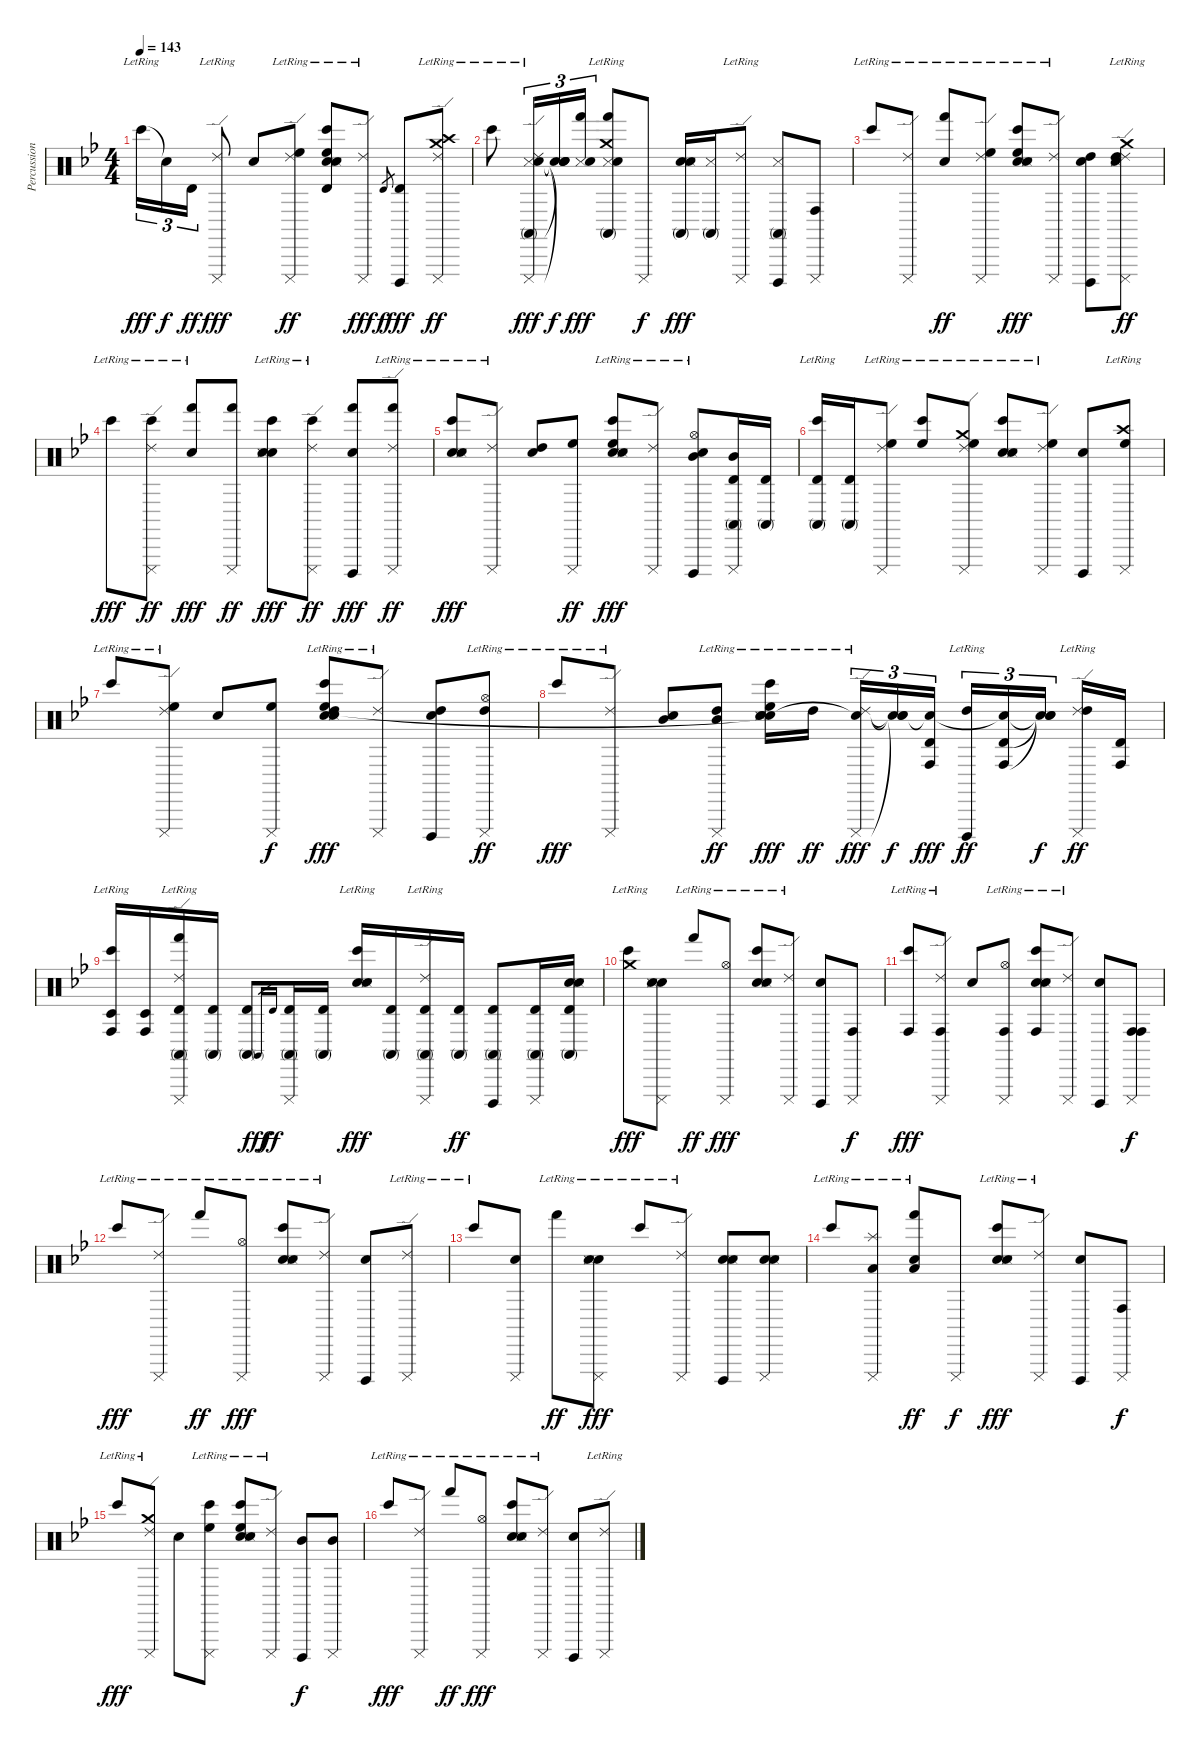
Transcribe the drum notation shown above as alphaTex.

\track ("Percussion" "Percussion") {instrument percussion}
\staff {score}
\articulation defaults
\ts (4 4)
\tempo 143
\clef neutral
\ks gminor "Bongo High (hit)"{lr}.16{tu (3 2) dy fff} "Snare (hit)"{t}.16{tu (3 2) dy f} "Timbale high (hit)".16{tu (3 2) dy ff}
("Cuica (mute)" "Ride (edge) 2"{lr}).8{dy fff} "Snare (hit) 2".8 ("Cuica (mute)" "High Floor Tom (hit)" "Ride (edge) 2"{lr}).8{dy ff} ("Snare (hit) 2" "Snare (side stick) 3" "Snare (hit) 2" "High Floor Tom (hit)" "Bongo High (hit)"{lr} "Timbale high (hit)").8 ("Cuica (mute)" "Ride (edge) 2"{lr}).8{dy fff} "Timbale high (hit)".8{gr dy f} ("Cuica (open)" "Timbale high (hit)").8{dy fff} ("Cuica (mute)" "Crash high (hit)"{lr} "Ride (edge) 2"{lr} "Crash medium (hit)"{lr}).8{dy ff} |
"Bongo High (hit)"{lr}.8 ("Cuica (mute)" "Conga high (mute)" "Snare (side stick) 3" "Snare (hit) 2" "Ride (edge) 2"{lr}).16{tu (3 2) dy fff} ("Snare (hit)"{t} "Snare (hit)"{t} "Snare (hit)"{t} "Snare (hit)"{t}).16{tu (3 2) dy f} ("Hand (hit)" "Snare (side stick) 3" "Snare (hit) 2").16{tu (3 2) dy fff} ("Conga high (mute)" "Snare (side stick) 3" "Snare (hit) 2" "Hand (hit)" "Crash medium (hit)"{lr}).8 "Cuica (mute)".8{dy f} ("Snare (hit) 2" "Snare (side stick) 3" "Snare (hit) 2" "Conga high (mute)").16{dy fff} ("Snare (side stick) 3" "Conga high (mute)").16 ("Cuica (mute)" "Ride (edge) 2"{lr}).8 ("Cuica (open)" "Snare (side stick) 3" "Conga high (mute)").8 ("Cuica (mute)" "Conga high (hit)").8 |
"Bongo High (hit)"{lr}.8 ("Cuica (mute)" "Ride (edge) 2"{lr}).8 ("Snare (hit) 2" "Hand (hit)"{lr}).8{dy ff} ("Cuica (mute)" "High Floor Tom (hit)" "Ride (edge) 2"{lr}).8 ("Snare (hit) 2" "Snare (side stick) 3" "Snare (hit) 2" "High Floor Tom (hit)" "Bongo High (hit)"{lr}).8{dy fff} ("Cuica (mute)" "Ride (edge) 2"{lr}).8 ("Cuica (open)" "Snare (hit) 2" "High Tom (hit)").8 ("Cuica (mute)" "Snare (side stick) 3" "Snare (hit) 2" "Ride (edge) 2"{lr} "Crash medium (hit)" "High Tom (hit)").8{dy ff} |
"Bongo High (hit)"{lr}.8{dy fff} ("Cuica (mute)" "Ride (edge) 2"{lr} "Bongo High (hit)").8{dy ff} ("Snare (hit) 2" "Hand (hit)"{lr}).8{dy fff} ("Cuica (mute)" "Hand (hit)").8{dy ff} ("Snare (hit) 2" "Snare (side stick) 3" "Snare (hit) 2" "Bongo High (hit)"{lr}).8{dy fff} ("Cuica (mute)" "Ride (edge) 2"{lr} "Bongo High (hit)").8{dy ff} ("Cuica (open)" "Snare (hit) 2" "Hand (hit)").8{dy fff} ("Cuica (mute)" "Ride (edge) 2"{lr} "Hand (hit)").8{dy ff} |
("Snare (hit) 2" "Snare (side stick) 3" "Snare (hit) 2" "Bongo High (hit)"{lr}).8{dy fff} ("Cuica (mute)" "Ride (edge) 2"{lr}).8 ("Snare (hit) 2" "High Tom (hit)").8 ("Cuica (mute)" "High Floor Tom (hit)").8{dy ff} ("Snare (hit) 2" "Snare (side stick) 3" "Snare (hit) 2" "High Floor Tom (hit)" "Bongo High (hit)"{lr}).8{dy fff} ("Cuica (mute)" "Ride (edge) 2"{lr}).8 ("Cuica (open)" "Hi-Hat (open)"{lr} "Mid Tom (hit)" "Snare (hit) 2").8 ("Cuica (mute)" "Mid Tom (hit)" "Conga high (mute)" "Timbale high (hit)").16 ("Conga high (mute)" "Timbale high (hit)").16 |
("Conga high (mute)" "Timbale high (hit)" "Bongo High (hit)"{lr}).16 ("Conga high (mute)" "Timbale high (hit)").16 ("Cuica (mute)" "High Floor Tom (hit)" "Ride (edge) 2"{lr}).8 ("High Floor Tom (hit)" "Bongo High (hit)"{lr}).8 ("Cuica (mute)" "High Floor Tom (hit)" "Ride (edge) 2"{lr} "Crash medium (hit)"{lr}).8 ("Snare (hit) 2" "Snare (side stick) 3" "Snare (hit) 2" "Bongo High (hit)"{lr}).8 ("Cuica (mute)" "High Floor Tom (hit)" "Ride (edge) 2"{lr}).8 ("Cuica (open)" "Snare (hit) 2").8 ("Cuica (mute)" "High Floor Tom (hit)" "Crash high (hit)"{lr}).8 |
"Bongo High (hit)"{lr}.8 ("Cuica (mute)" "High Floor Tom (hit)" "Ride (edge) 2"{lr}).8 "Snare (hit) 2".8 ("Cuica (mute)" "High Floor Tom (hit)").8{dy f} ("Snare (hit) 2" "Snare (side stick) 3" "Snare (hit) 2" "High Floor Tom (hit)" "Bongo High (hit)"{lr} "High Tom (hit)").8{dy fff} ("Cuica (mute)" "Ride (edge) 2"{lr}).8 ("Cuica (open)" "Snare (hit) 2" "High Tom (hit)").8 ("Cuica (mute)" "Hi-Hat (open)"{lr} "High Tom (hit)").8{dy ff} |
"Bongo High (hit)"{lr}.8{dy fff} ("Cuica (mute)" "Ride (edge) 2"{lr}).8 ("Snare (hit) 2" "Mid Tom (hit)").8 ("Cuica (mute)" "Mid Tom (hit)" "High Tom (hit)"{lr}).8{dy ff} ("Snare (hit) 2" "Snare (side stick) 3" "Snare (hit) 2" "High Floor Tom (hit)" "Bongo High (hit)"{lr} "Snare (hit)"{t}).16{dy fff} "High Tom (hit)"{lr}.16{dy ff} ("Cuica (mute)" "Ride (edge) 2"{lr} "Snare (hit)"{t}).16{tu (3 2) dy fff} ("Snare (hit)"{t} "Snare (hit)"{t} "Snare (hit)"{t}).16{tu (3 2) dy f} ("Timbale high (hit)" "Conga high (hit)" "Snare (hit)"{t}).16{tu (3 2) dy fff} ("Cuica (open)" "High Tom (hit)"{lr}).16{tu (3 2) dy ff} ("Timbale high (hit)" "Conga high (hit)" "Snare (hit)"{t}).16{tu (3 2)} ("Snare (hit)"{t} "Snare (hit)"{t} "Snare (hit)"{t}).16{tu (3 2) dy f} ("Cuica (mute)" "Ride (edge) 2"{lr} "High Tom (hit)"{lr}).16{dy ff} ("Timbale high (hit)" "Conga high (hit)").16 |
("Timbale low (hit)" "Conga high (hit)" "Bongo High (hit)"{lr}).16 ("Timbale low (hit)" "Conga high (hit)").16 ("Cuica (mute)" "Conga high (mute)" "Timbale high (hit)" "Ride (edge) 2"{lr} "Hand (hit)").16 ("Conga high (mute)" "Timbale high (hit)").16 ("Conga high (mute)" "Timbale high (hit)").8 "Conga high (mute)".16{gr dy fff} "Timbale high (hit)".16{gr dy ff} ("Cuica (mute)" "Conga high (mute)" "Timbale high (hit)").16 ("Conga high (mute)" "Timbale high (hit)").16 ("Snare (hit) 2" "Snare (side stick) 3" "Snare (hit) 2" "Bongo High (hit)"{lr}).16{dy fff} ("Conga high (mute)" "Timbale high (hit)").16 ("Cuica (mute)" "Conga high (mute)" "Timbale high (hit)" "Ride (edge) 2"{lr}).16 ("Conga high (mute)" "Timbale high (hit)").16{dy ff} ("Cuica (open)" "Conga high (mute)" "Timbale high (hit)").8 ("Cuica (mute)" "Conga high (mute)" "Timbale high (hit)").16 ("Snare (hit) 2" "Snare (side stick) 3" "Snare (hit) 2" "Conga high (mute)" "Timbale high (hit)").16 |
("Bongo High (hit)"{lr} "Crash medium (hit)"{lr}).8{dy fff} ("Cuica (mute)" "Snare (hit) 2" "Snare (side stick) 3" "Snare (hit) 2").8 "Hand (hit)"{lr}.8{dy ff} ("Cuica (mute)" "Hi-Hat (open)"{lr}).8{dy fff} ("Snare (hit) 2" "Snare (side stick) 3" "Snare (hit) 2" "Bongo High (hit)"{lr}).8 ("Cuica (mute)" "Ride (edge) 2"{lr}).8 ("Cuica (open)" "Snare (hit) 2").8 ("Cuica (mute)" "Conga high (hit)").8{dy f} |
("Bongo High (hit)"{lr} "Conga high (hit)").8{dy fff} ("Cuica (mute)" "Ride (edge) 2"{lr} "Conga high (hit)").8 "Snare (hit) 2".8 ("Cuica (mute)" "Hi-Hat (open)"{lr} "Conga high (hit)").8 ("Snare (hit) 2" "Snare (side stick) 3" "Snare (hit) 2" "Bongo High (hit)"{lr} "Conga high (hit)").8 ("Cuica (mute)" "Ride (edge) 2"{lr}).8 ("Cuica (open)" "Snare (hit) 2").8 ("Cuica (mute)" "Conga high (hit)" "Conga high (hit)").8{dy f} |
"Bongo High (hit)"{lr}.8{dy fff} ("Cuica (mute)" "Ride (edge) 2"{lr}).8 "Hand (hit)"{lr}.8{dy ff} ("Cuica (mute)" "Hi-Hat (open)"{lr}).8{dy fff} ("Snare (hit) 2" "Snare (side stick) 3" "Snare (hit) 2" "Bongo High (hit)"{lr}).8 ("Cuica (mute)" "Ride (edge) 2"{lr}).8 ("Cuica (open)" "Snare (hit) 2").8 ("Cuica (mute)" "Ride (edge) 2"{lr}).8 |
"Bongo High (hit)"{lr}.8 ("Cuica (mute)" "Snare (hit) 2").8 "Hand (hit)"{lr}.8{dy ff} ("Cuica (mute)" "Snare (hit) 2" "Snare (side stick) 3" "Snare (hit) 2"{lr}).8{dy fff} "Bongo High (hit)"{lr}.8 ("Cuica (mute)" "Ride (edge) 2"{lr}).8 ("Cuica (open)" "Snare (hit) 2" "Snare (side stick) 3" "Snare (hit) 2").8 ("Cuica (mute)" "Snare (hit) 2" "Snare (side stick) 3" "Snare (hit) 2").8 |
"Bongo High (hit)"{lr}.8 ("Cuica (mute)" "Low Tom (hit)" "Splash (hit)"{lr}).8 ("Low Tom (hit)" "Snare (hit) 2" "Hand (hit)"{lr}).8{dy ff} "Cuica (mute)".8{dy f} ("Snare (hit) 2" "Snare (side stick) 3" "Snare (hit) 2" "Bongo High (hit)"{lr}).8{dy fff} ("Cuica (mute)" "Ride (edge) 2"{lr}).8 ("Cuica (open)" "Snare (hit) 2").8 ("Cuica (mute)" "Conga high (hit)").8{dy f} |
"Bongo High (hit)"{lr}.8{dy fff} ("Cuica (mute)" "Crash medium (hit)"{lr} "Ride (edge) 2"{lr}).8 "Snare (hit) 2".8 ("Cuica (mute)" "High Floor Tom (hit)" "Bongo High (hit)"{lr}).8 ("Snare (hit) 2" "Snare (side stick) 3" "Snare (hit) 2" "High Floor Tom (hit)" "Bongo High (hit)"{lr}).8 ("Cuica (mute)" "Ride (edge) 2"{lr}).8 ("Cuica (open)" "Mid Tom (hit)").8{dy f} ("Cuica (mute)" "Mid Tom (hit)").8 |
"Bongo High (hit)"{lr}.8{dy fff} ("Cuica (mute)" "Ride (edge) 2"{lr}).8 "Hand (hit)"{lr}.8{dy ff} ("Cuica (mute)" "Hi-Hat (open)"{lr}).8{dy fff} ("Snare (hit) 2" "Snare (side stick) 3" "Snare (hit) 2" "Bongo High (hit)"{lr}).8 ("Cuica (mute)" "Ride (edge) 2"{lr}).8 ("Cuica (open)" "Snare (hit) 2").8 ("Cuica (mute)" "Ride (edge) 2"{lr}).8
